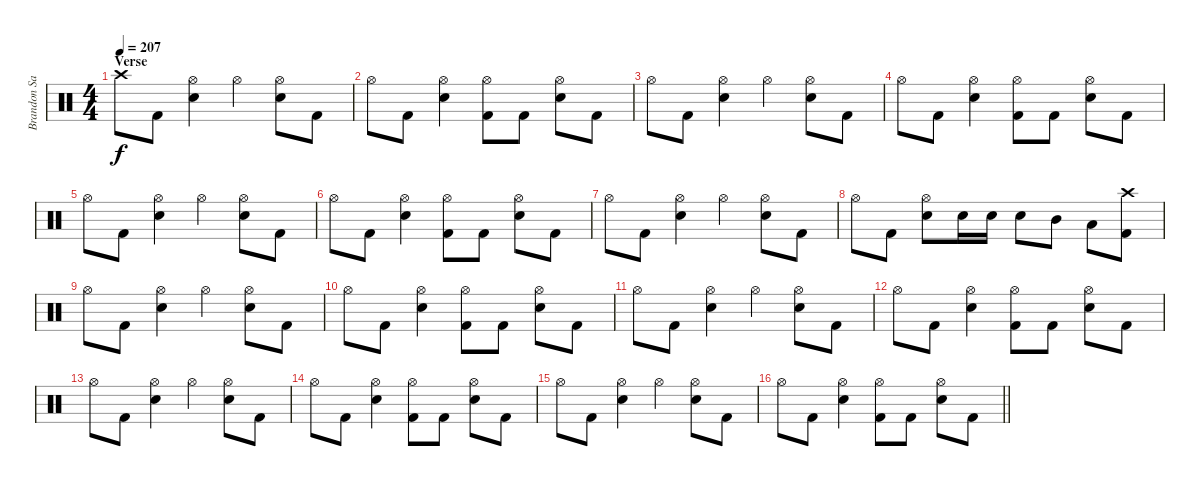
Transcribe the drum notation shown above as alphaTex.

\track ("Brandon Saller" "Brandon Sa") {instrument percussion}
\staff {score}
\articulation defaults
\ts (4 4)
\section ("" "Verse")
\tempo 207
\clef neutral
\ks c "Crash high (hit)".8{dy f} "Kick (hit) 2".8
("Hi-Hat (open)" "Electric Snare (hit)").4 "Hi-Hat (open)".4 ("Hi-Hat (open)" "Electric Snare (hit)").8 "Kick (hit) 2".8 |
"Hi-Hat (open)".8 "Kick (hit) 2".8 ("Hi-Hat (open)" "Electric Snare (hit)").4 ("Hi-Hat (open)" "Kick (hit) 2").8 "Kick (hit) 2".8 ("Hi-Hat (open)" "Electric Snare (hit)").8 "Kick (hit) 2".8 |
"Hi-Hat (open)".8 "Kick (hit) 2".8 ("Hi-Hat (open)" "Electric Snare (hit)").4 "Hi-Hat (open)".4 ("Hi-Hat (open)" "Electric Snare (hit)").8 "Kick (hit) 2".8 |
"Hi-Hat (open)".8 "Kick (hit) 2".8 ("Hi-Hat (open)" "Electric Snare (hit)").4 ("Hi-Hat (open)" "Kick (hit) 2").8 "Kick (hit) 2".8 ("Hi-Hat (open)" "Electric Snare (hit)").8 "Kick (hit) 2".8 |
"Hi-Hat (open)".8 "Kick (hit) 2".8 ("Hi-Hat (open)" "Electric Snare (hit)").4 "Hi-Hat (open)".4 ("Hi-Hat (open)" "Electric Snare (hit)").8 "Kick (hit) 2".8 |
"Hi-Hat (open)".8 "Kick (hit) 2".8 ("Hi-Hat (open)" "Electric Snare (hit)").4 ("Hi-Hat (open)" "Kick (hit) 2").8 "Kick (hit) 2".8 ("Hi-Hat (open)" "Electric Snare (hit)").8 "Kick (hit) 2".8 |
"Hi-Hat (open)".8 "Kick (hit) 2".8 ("Hi-Hat (open)" "Electric Snare (hit)").4 "Hi-Hat (open)".4 ("Hi-Hat (open)" "Electric Snare (hit)").8 "Kick (hit) 2".8 |
"Hi-Hat (open)".8 "Kick (hit) 2".8 ("Hi-Hat (open)" "Electric Snare (hit)").8 "Electric Snare (hit)".16 "Electric Snare (hit)".16 "Electric Snare (hit)".8 "Mid Tom (hit)".8 "Low Tom (hit)".8 ("Crash high (hit)" "Kick (hit) 2").8 |
"Hi-Hat (open)".8 "Kick (hit) 2".8 ("Hi-Hat (open)" "Electric Snare (hit)").4 "Hi-Hat (open)".4 ("Hi-Hat (open)" "Electric Snare (hit)").8 "Kick (hit) 2".8 |
"Hi-Hat (open)".8 "Kick (hit) 2".8 ("Hi-Hat (open)" "Electric Snare (hit)").4 ("Hi-Hat (open)" "Kick (hit) 2").8 "Kick (hit) 2".8 ("Hi-Hat (open)" "Electric Snare (hit)").8 "Kick (hit) 2".8 |
"Hi-Hat (open)".8 "Kick (hit) 2".8 ("Hi-Hat (open)" "Electric Snare (hit)").4 "Hi-Hat (open)".4 ("Hi-Hat (open)" "Electric Snare (hit)").8 "Kick (hit) 2".8 |
"Hi-Hat (open)".8 "Kick (hit) 2".8 ("Hi-Hat (open)" "Electric Snare (hit)").4 ("Hi-Hat (open)" "Kick (hit) 2").8 "Kick (hit) 2".8 ("Hi-Hat (open)" "Electric Snare (hit)").8 "Kick (hit) 2".8 |
"Hi-Hat (open)".8 "Kick (hit) 2".8 ("Hi-Hat (open)" "Electric Snare (hit)").4 "Hi-Hat (open)".4 ("Hi-Hat (open)" "Electric Snare (hit)").8 "Kick (hit) 2".8 |
"Hi-Hat (open)".8 "Kick (hit) 2".8 ("Hi-Hat (open)" "Electric Snare (hit)").4 ("Hi-Hat (open)" "Kick (hit) 2").8 "Kick (hit) 2".8 ("Hi-Hat (open)" "Electric Snare (hit)").8 "Kick (hit) 2".8 |
"Hi-Hat (open)".8 "Kick (hit) 2".8 ("Hi-Hat (open)" "Electric Snare (hit)").4 "Hi-Hat (open)".4 ("Hi-Hat (open)" "Electric Snare (hit)").8 "Kick (hit) 2".8 |
\barLineRight lightlight "Hi-Hat (open)".8 "Kick (hit) 2".8
("Hi-Hat (open)" "Electric Snare (hit)").4 ("Hi-Hat (open)" "Kick (hit) 2").8 "Kick (hit) 2".8 ("Hi-Hat (open)" "Electric Snare (hit)").8 "Kick (hit) 2".8
